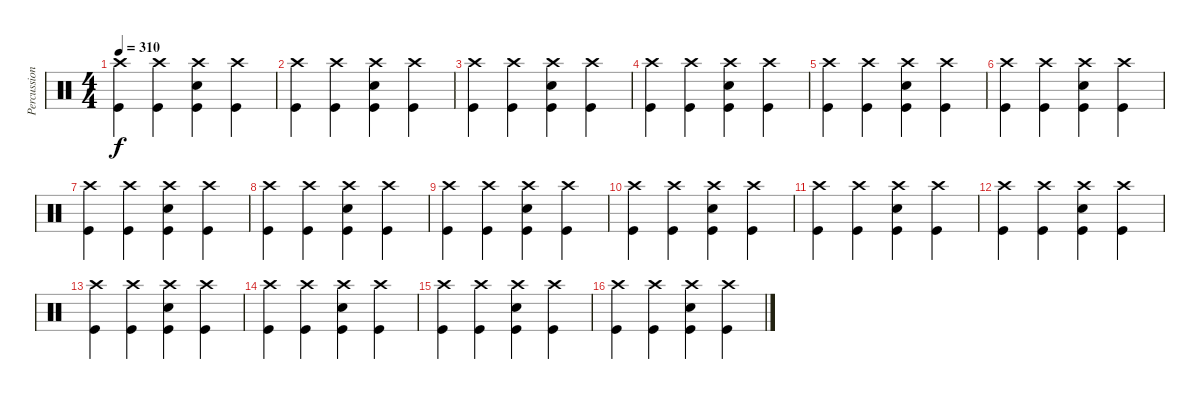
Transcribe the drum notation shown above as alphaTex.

\track ("Percussion" "Percussion") {instrument percussion}
\staff {score}
\articulation defaults
\ts (4 4)
\tempo 310
\clef neutral
\ks c
("Crash high (hit)" "Kick (hit)").4{dy f} ("Crash high (hit)" "Kick (hit)").4 ("Crash high (hit)" "Electric Snare (hit)" "Kick (hit)").4 ("Crash high (hit)" "Kick (hit)").4 |
("Crash high (hit)" "Kick (hit)").4 ("Crash high (hit)" "Kick (hit)").4 ("Crash high (hit)" "Electric Snare (hit)" "Kick (hit)").4 ("Crash high (hit)" "Kick (hit)").4 |
("Crash high (hit)" "Kick (hit)").4 ("Crash high (hit)" "Kick (hit)").4 ("Crash high (hit)" "Electric Snare (hit)" "Kick (hit)").4 ("Crash high (hit)" "Kick (hit)").4 |
("Crash high (hit)" "Kick (hit)").4 ("Crash high (hit)" "Kick (hit)").4 ("Crash high (hit)" "Electric Snare (hit)" "Kick (hit)").4 ("Crash high (hit)" "Kick (hit)").4 |
("Crash high (hit)" "Kick (hit)").4 ("Crash high (hit)" "Kick (hit)").4 ("Crash high (hit)" "Electric Snare (hit)" "Kick (hit)").4 ("Crash high (hit)" "Kick (hit)").4 |
("Crash high (hit)" "Kick (hit)").4 ("Crash high (hit)" "Kick (hit)").4 ("Crash high (hit)" "Electric Snare (hit)" "Kick (hit)").4 ("Crash high (hit)" "Kick (hit)").4 |
("Crash high (hit)" "Kick (hit)").4 ("Crash high (hit)" "Kick (hit)").4 ("Crash high (hit)" "Electric Snare (hit)" "Kick (hit)").4 ("Crash high (hit)" "Kick (hit)").4 |
("Crash high (hit)" "Kick (hit)").4 ("Crash high (hit)" "Kick (hit)").4 ("Crash high (hit)" "Electric Snare (hit)" "Kick (hit)").4 ("Crash high (hit)" "Kick (hit)").4 |
("Crash high (hit)" "Kick (hit)").4 ("Crash high (hit)" "Kick (hit)").4 ("Crash high (hit)" "Electric Snare (hit)" "Kick (hit)").4 ("Crash high (hit)" "Kick (hit)").4 |
("Crash high (hit)" "Kick (hit)").4 ("Crash high (hit)" "Kick (hit)").4 ("Crash high (hit)" "Electric Snare (hit)" "Kick (hit)").4 ("Crash high (hit)" "Kick (hit)").4 |
("Crash high (hit)" "Kick (hit)").4 ("Crash high (hit)" "Kick (hit)").4 ("Crash high (hit)" "Electric Snare (hit)" "Kick (hit)").4 ("Crash high (hit)" "Kick (hit)").4 |
("Crash high (hit)" "Kick (hit)").4 ("Crash high (hit)" "Kick (hit)").4 ("Crash high (hit)" "Electric Snare (hit)" "Kick (hit)").4 ("Crash high (hit)" "Kick (hit)").4 |
("Crash high (hit)" "Kick (hit)").4 ("Crash high (hit)" "Kick (hit)").4 ("Crash high (hit)" "Electric Snare (hit)" "Kick (hit)").4 ("Crash high (hit)" "Kick (hit)").4 |
("Crash high (hit)" "Kick (hit)").4 ("Crash high (hit)" "Kick (hit)").4 ("Crash high (hit)" "Electric Snare (hit)" "Kick (hit)").4 ("Crash high (hit)" "Kick (hit)").4 |
("Crash high (hit)" "Kick (hit)").4 ("Crash high (hit)" "Kick (hit)").4 ("Crash high (hit)" "Electric Snare (hit)" "Kick (hit)").4 ("Crash high (hit)" "Kick (hit)").4 |
("Crash high (hit)" "Kick (hit)").4 ("Crash high (hit)" "Kick (hit)").4 ("Crash high (hit)" "Electric Snare (hit)" "Kick (hit)").4 ("Crash high (hit)" "Kick (hit)").4
